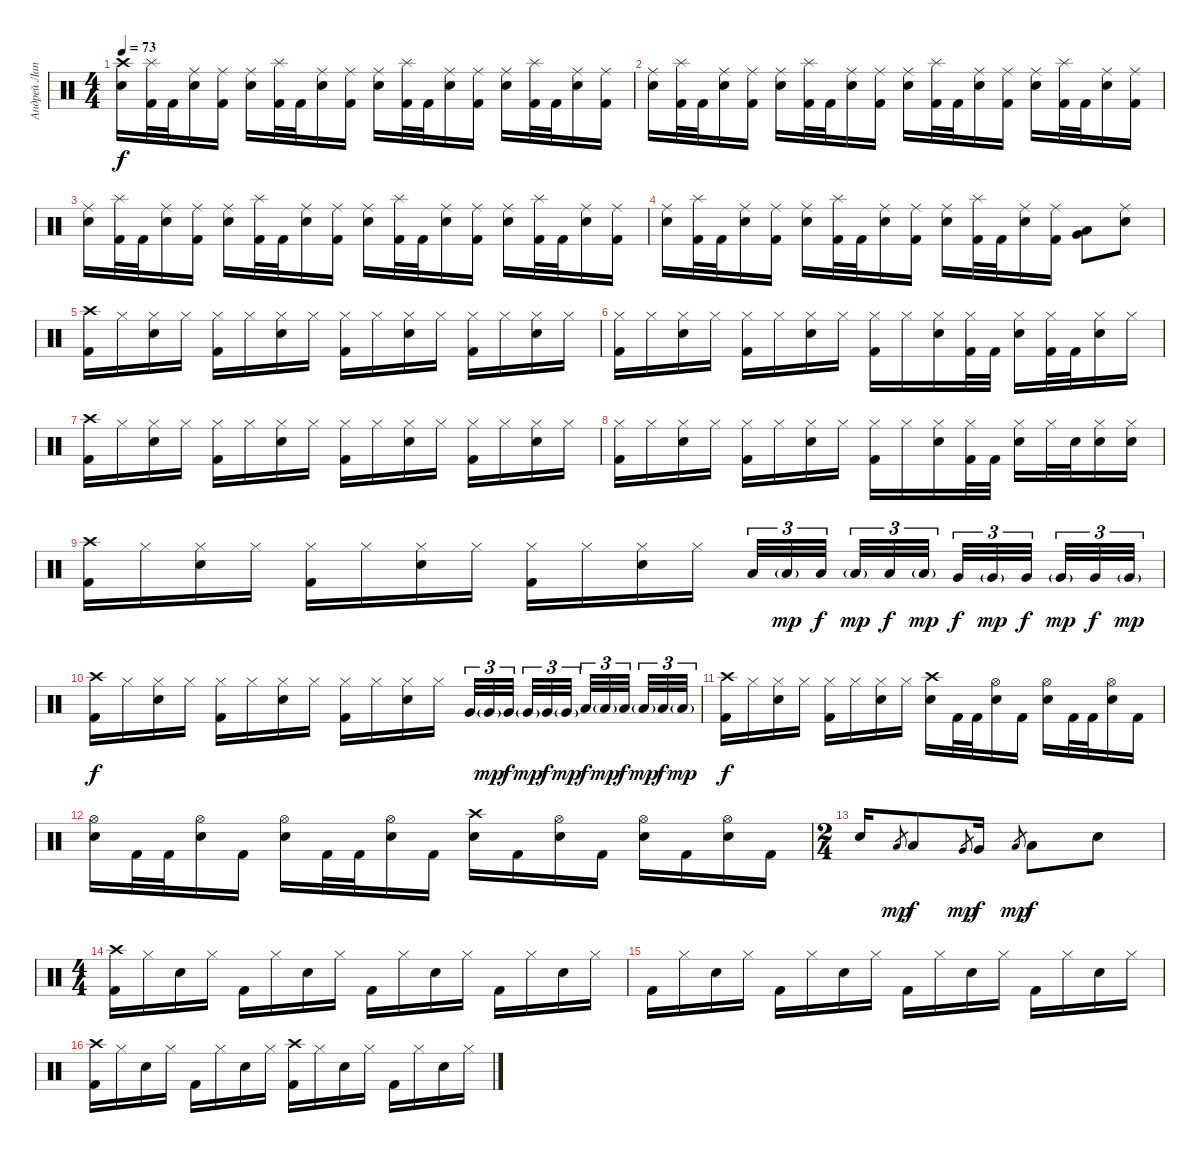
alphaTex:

\track ("Андрей Лаптев" "Андрей Лап") {instrument percussion}
\staff {score}
\articulation defaults
\ts (4 4)
\tempo 73
\clef neutral
\ks c
("Crash high (hit)" "Electric Snare (hit)").16{dy f} ("Splash (hit)" "Kick (hit) 2").32 "Kick (hit) 2".32 ("Ride (middle)" "Electric Snare (hit)").16 ("Ride (middle)" "Kick (hit) 2").16 ("Ride (middle)" "Electric Snare (hit)").16 ("Splash (hit)" "Kick (hit) 2").32 "Kick (hit) 2".32 ("Ride (middle)" "Electric Snare (hit)").16 ("Ride (middle)" "Kick (hit) 2").16 ("Ride (middle)" "Electric Snare (hit)").16 ("Splash (hit)" "Kick (hit) 2").32 "Kick (hit) 2".32 ("Ride (middle)" "Electric Snare (hit)").16 ("Ride (middle)" "Kick (hit) 2").16 ("Ride (middle)" "Electric Snare (hit)").16 ("Splash (hit)" "Kick (hit) 2").32 "Kick (hit) 2".32 ("Ride (middle)" "Electric Snare (hit)").16 ("Ride (middle)" "Kick (hit) 2").16 |
("Ride (middle)" "Electric Snare (hit)").16 ("Splash (hit)" "Kick (hit) 2").32 "Kick (hit) 2".32 ("Ride (middle)" "Electric Snare (hit)").16 ("Ride (middle)" "Kick (hit) 2").16 ("Ride (middle)" "Electric Snare (hit)").16 ("Splash (hit)" "Kick (hit) 2").32 "Kick (hit) 2".32 ("Ride (middle)" "Electric Snare (hit)").16 ("Ride (middle)" "Kick (hit) 2").16 ("Ride (middle)" "Electric Snare (hit)").16 ("Splash (hit)" "Kick (hit) 2").32 "Kick (hit) 2".32 ("Ride (middle)" "Electric Snare (hit)").16 ("Ride (middle)" "Kick (hit) 2").16 ("Ride (middle)" "Electric Snare (hit)").16 ("Splash (hit)" "Kick (hit) 2").32 "Kick (hit) 2".32 ("Ride (middle)" "Electric Snare (hit)").16 ("Ride (middle)" "Kick (hit) 2").16 |
("Ride (middle)" "Electric Snare (hit)").16 ("Splash (hit)" "Kick (hit) 2").32 "Kick (hit) 2".32 ("Ride (middle)" "Electric Snare (hit)").16 ("Ride (middle)" "Kick (hit) 2").16 ("Ride (middle)" "Electric Snare (hit)").16 ("Splash (hit)" "Kick (hit) 2").32 "Kick (hit) 2".32 ("Ride (middle)" "Electric Snare (hit)").16 ("Ride (middle)" "Kick (hit) 2").16 ("Ride (middle)" "Electric Snare (hit)").16 ("Splash (hit)" "Kick (hit) 2").32 "Kick (hit) 2".32 ("Ride (middle)" "Electric Snare (hit)").16 ("Ride (middle)" "Kick (hit) 2").16 ("Ride (middle)" "Electric Snare (hit)").16 ("Splash (hit)" "Kick (hit) 2").32 "Kick (hit) 2".32 ("Ride (middle)" "Electric Snare (hit)").16 ("Ride (middle)" "Kick (hit) 2").16 |
("Ride (middle)" "Electric Snare (hit)").16 ("Splash (hit)" "Kick (hit) 2").32 "Kick (hit) 2".32 ("Ride (middle)" "Electric Snare (hit)").16 ("Ride (middle)" "Kick (hit) 2").16 ("Ride (middle)" "Electric Snare (hit)").16 ("Splash (hit)" "Kick (hit) 2").32 "Kick (hit) 2".32 ("Ride (middle)" "Electric Snare (hit)").16 ("Ride (middle)" "Kick (hit) 2").16 ("Ride (middle)" "Electric Snare (hit)").16 ("Splash (hit)" "Kick (hit) 2").32 "Kick (hit) 2".32 ("Ride (middle)" "Electric Snare (hit)").16 ("Ride (middle)" "Kick (hit) 2").16 ("Very Low Tom (hit)" "Low Floor Tom (hit)").8 ("Ride (middle)" "Electric Snare (hit)").8 |
("Crash high (hit)" "Kick (hit) 2").16 "Hi-Hat (closed)".16 ("Hi-Hat (closed)" "Electric Snare (hit)").16 "Hi-Hat (closed)".16 ("Hi-Hat (closed)" "Kick (hit) 2").16 "Hi-Hat (closed)".16 ("Hi-Hat (closed)" "Electric Snare (hit)").16 "Hi-Hat (closed)".16 ("Hi-Hat (closed)" "Kick (hit) 2").16 "Hi-Hat (closed)".16 ("Hi-Hat (closed)" "Electric Snare (hit)").16 "Hi-Hat (closed)".16 ("Hi-Hat (closed)" "Kick (hit) 2").16 "Hi-Hat (closed)".16 ("Hi-Hat (closed)" "Electric Snare (hit)").16 "Hi-Hat (closed)".16 |
("Hi-Hat (closed)" "Kick (hit) 2").16 "Hi-Hat (closed)".16 ("Hi-Hat (closed)" "Electric Snare (hit)").16 "Hi-Hat (closed)".16 ("Hi-Hat (closed)" "Kick (hit) 2").16 "Hi-Hat (closed)".16 ("Hi-Hat (closed)" "Electric Snare (hit)").16 "Hi-Hat (closed)".16 ("Hi-Hat (closed)" "Kick (hit) 2").16 "Hi-Hat (closed)".16 ("Hi-Hat (closed)" "Electric Snare (hit)").16 ("Hi-Hat (closed)" "Kick (hit) 2").32 "Kick (hit) 2".32 ("Hi-Hat (closed)" "Electric Snare (hit)").16 ("Hi-Hat (closed)" "Kick (hit) 2").32 "Kick (hit) 2".32 ("Hi-Hat (closed)" "Electric Snare (hit)").16 "Hi-Hat (closed)".16 |
("Crash high (hit)" "Kick (hit) 2").16 "Hi-Hat (closed)".16 ("Hi-Hat (closed)" "Electric Snare (hit)").16 "Hi-Hat (closed)".16 ("Hi-Hat (closed)" "Kick (hit) 2").16 "Hi-Hat (closed)".16 ("Hi-Hat (closed)" "Electric Snare (hit)").16 "Hi-Hat (closed)".16 ("Hi-Hat (closed)" "Kick (hit) 2").16 "Hi-Hat (closed)".16 ("Hi-Hat (closed)" "Electric Snare (hit)").16 "Hi-Hat (closed)".16 ("Hi-Hat (closed)" "Kick (hit) 2").16 "Hi-Hat (closed)".16 ("Hi-Hat (closed)" "Electric Snare (hit)").16 "Hi-Hat (closed)".16 |
("Hi-Hat (closed)" "Kick (hit) 2").16 "Hi-Hat (closed)".16 ("Hi-Hat (closed)" "Electric Snare (hit)").16 "Hi-Hat (closed)".16 ("Hi-Hat (closed)" "Kick (hit) 2").16 "Hi-Hat (closed)".16 ("Hi-Hat (closed)" "Electric Snare (hit)").16 "Hi-Hat (closed)".16 ("Hi-Hat (closed)" "Kick (hit) 2").16 "Hi-Hat (closed)".16 ("Hi-Hat (closed)" "Electric Snare (hit)").16 ("Hi-Hat (closed)" "Kick (hit) 2").32 "Kick (hit) 2".32 ("Hi-Hat (closed)" "Electric Snare (hit)").16 "Hi-Hat (closed)".32 "Electric Snare (hit)".32 ("Hi-Hat (closed)" "Electric Snare (hit)").16 ("Hi-Hat (closed)" "Electric Snare (hit)").16 |
("Crash high (hit)" "Kick (hit) 2").16 "Hi-Hat (closed)".16 ("Hi-Hat (closed)" "Electric Snare (hit)").16 "Hi-Hat (closed)".16 ("Hi-Hat (closed)" "Kick (hit) 2").16 "Hi-Hat (closed)".16 ("Hi-Hat (closed)" "Electric Snare (hit)").16 "Hi-Hat (closed)".16 ("Hi-Hat (closed)" "Kick (hit) 2").16 "Hi-Hat (closed)".16 ("Hi-Hat (closed)" "Electric Snare (hit)").16 "Hi-Hat (closed)".16 "Low Tom (hit)".32{tu (3 2)} "Low Tom (hit)"{g}.32{tu (3 2) dy mp} "Low Tom (hit)".32{tu (3 2) dy f beam splitsecondary} "Low Tom (hit)"{g}.32{tu (3 2) dy mp} "Low Tom (hit)".32{tu (3 2) dy f} "Low Tom (hit)"{g}.32{tu (3 2) dy mp beam splitsecondary} "Very Low Tom (hit)".32{tu (3 2) dy f} "Very Low Tom (hit)"{g}.32{tu (3 2) dy mp} "Very Low Tom (hit)".32{tu (3 2) dy f beam splitsecondary} "Very Low Tom (hit)"{g}.32{tu (3 2) dy mp} "Very Low Tom (hit)".32{tu (3 2) dy f} "Very Low Tom (hit)"{g}.32{tu (3 2) dy mp} |
("Crash high (hit)" "Kick (hit) 2").16{dy f} "Hi-Hat (closed)".16 ("Hi-Hat (closed)" "Electric Snare (hit)").16 "Hi-Hat (closed)".16 ("Hi-Hat (closed)" "Kick (hit) 2").16 "Hi-Hat (closed)".16 ("Hi-Hat (closed)" "Electric Snare (hit)").16 "Hi-Hat (closed)".16 ("Hi-Hat (closed)" "Kick (hit) 2").16 "Hi-Hat (closed)".16 ("Hi-Hat (closed)" "Electric Snare (hit)").16 "Hi-Hat (closed)".16 "Very Low Tom (hit)".32{tu (3 2)} "Very Low Tom (hit)"{g}.32{tu (3 2) dy mp} "Very Low Tom (hit)".32{tu (3 2) dy f beam splitsecondary} "Very Low Tom (hit)"{g}.32{tu (3 2) dy mp} "Very Low Tom (hit)".32{tu (3 2) dy f} "Very Low Tom (hit)"{g}.32{tu (3 2) dy mp beam splitsecondary} "Low Floor Tom (hit)".32{tu (3 2) dy f} "Low Floor Tom (hit)"{g}.32{tu (3 2) dy mp} "Low Floor Tom (hit)".32{tu (3 2) dy f beam splitsecondary} "Low Floor Tom (hit)"{g}.32{tu (3 2) dy mp} "Low Floor Tom (hit)".32{tu (3 2) dy f} "Low Floor Tom (hit)"{g}.32{tu (3 2) dy mp} |
("Crash high (hit)" "Kick (hit) 2").16{dy f} "Hi-Hat (closed)".16 ("Hi-Hat (closed)" "Electric Snare (hit)").16 "Hi-Hat (closed)".16 ("Hi-Hat (closed)" "Kick (hit) 2").16 "Hi-Hat (closed)".16 ("Hi-Hat (closed)" "Electric Snare (hit)").16 "Hi-Hat (closed)".16 ("Crash high (hit)" "Electric Snare (hit)").16 "Kick (hit) 2".32 "Kick (hit) 2".32 ("Hi-Hat (open)" "Electric Snare (hit)").16 "Kick (hit) 2".16 ("Hi-Hat (open)" "Electric Snare (hit)").16 "Kick (hit) 2".32 "Kick (hit) 2".32 ("Hi-Hat (open)" "Electric Snare (hit)").16 "Kick (hit) 2".16 |
("Hi-Hat (open)" "Electric Snare (hit)").16 "Kick (hit) 2".32 "Kick (hit) 2".32 ("Hi-Hat (open)" "Electric Snare (hit)").16 "Kick (hit) 2".16 ("Hi-Hat (open)" "Electric Snare (hit)").16 "Kick (hit) 2".32 "Kick (hit) 2".32 ("Hi-Hat (open)" "Electric Snare (hit)").16 "Kick (hit) 2".16 ("Crash high (hit)" "Electric Snare (hit)").16 "Kick (hit) 2".16 ("Hi-Hat (open)" "Electric Snare (hit)").16 "Kick (hit) 2".16 ("Hi-Hat (open)" "Electric Snare (hit)").16 "Kick (hit) 2".16 ("Hi-Hat (open)" "Electric Snare (hit)").16 "Kick (hit) 2".16 |
\ts (2 4)
"Electric Snare (hit)".16 "Low Tom (hit)".8{gr dy mp} "Low Tom (hit)".8{dy f} "Very Low Tom (hit)".8{gr dy mp} "Very Low Tom (hit)".16{dy f} "Low Floor Tom (hit)".8{gr dy mp} "Low Floor Tom (hit)".8{dy f} "Electric Snare (hit)".8 |
\ts (4 4)
("Crash high (hit)" "Kick (hit) 2").16 "Hi-Hat (closed)".16 "Electric Snare (hit)".16 "Hi-Hat (closed)".16 "Kick (hit) 2".16 "Hi-Hat (closed)".16 "Electric Snare (hit)".16 "Hi-Hat (closed)".16 "Kick (hit) 2".16 "Hi-Hat (closed)".16 "Electric Snare (hit)".16 "Hi-Hat (closed)".16 "Kick (hit) 2".16 "Hi-Hat (closed)".16 "Electric Snare (hit)".16 "Hi-Hat (closed)".16 |
"Kick (hit) 2".16 "Hi-Hat (closed)".16 "Electric Snare (hit)".16 "Hi-Hat (closed)".16 "Kick (hit) 2".16 "Hi-Hat (closed)".16 "Electric Snare (hit)".16 "Hi-Hat (closed)".16 "Kick (hit) 2".16 "Hi-Hat (closed)".16 "Electric Snare (hit)".16 "Hi-Hat (closed)".16 "Kick (hit) 2".16 "Hi-Hat (closed)".16 "Electric Snare (hit)".16 "Hi-Hat (closed)".16 |
("Crash high (hit)" "Kick (hit) 2").16 "Hi-Hat (closed)".16 "Electric Snare (hit)".16 "Hi-Hat (closed)".16 "Kick (hit) 2".16 "Hi-Hat (closed)".16 "Electric Snare (hit)".16 "Hi-Hat (closed)".16 ("Crash high (hit)" "Kick (hit) 2").16 "Hi-Hat (closed)".16 "Electric Snare (hit)".16 "Hi-Hat (closed)".16 "Kick (hit) 2".16 "Hi-Hat (closed)".16 "Electric Snare (hit)".16 "Hi-Hat (closed)".16
